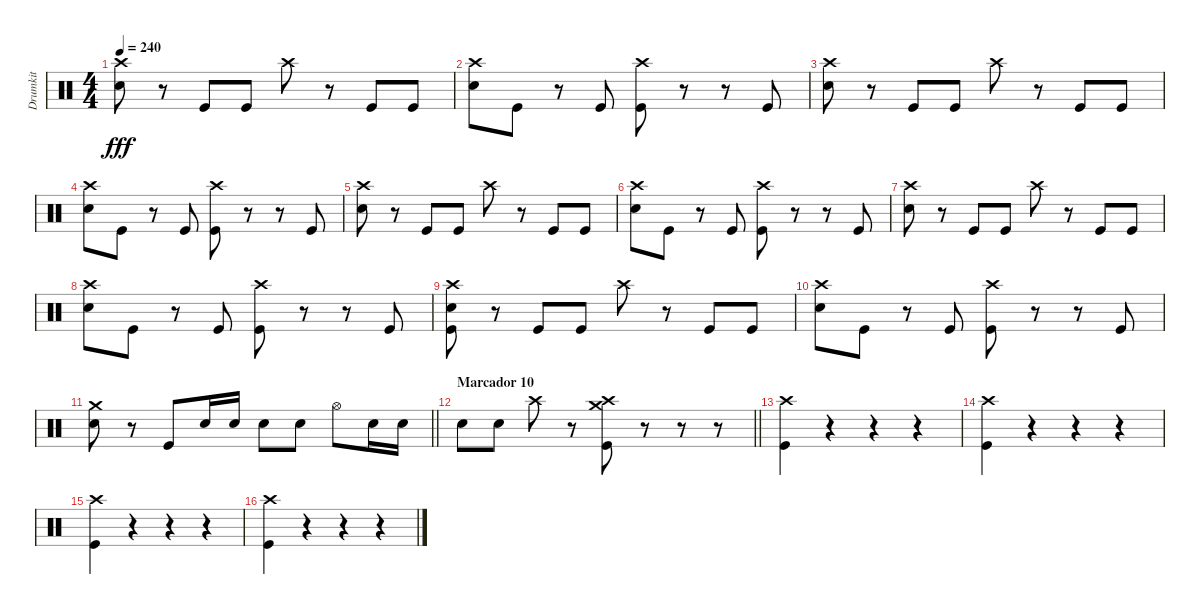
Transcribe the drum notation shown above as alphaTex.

\track ("Drumkit" "Drumkit") {instrument percussion}
\staff {score}
\articulation defaults
\ts (4 4)
\tempo 240
\clef neutral
\ks c
("Crash high (hit)" "Snare (hit) 2").8{dy fff} r.8 "Kick (hit)".8 "Kick (hit)".8 "Crash high (hit)".8 r.8 "Kick (hit)".8 "Kick (hit)".8 |
("Crash high (hit)" "Snare (hit) 2").8 "Kick (hit)".8 r.8 "Kick (hit)".8 ("Crash high (hit)" "Kick (hit)").8 r.8 r.8 "Kick (hit)".8 |
("Crash high (hit)" "Snare (hit) 2").8 r.8 "Kick (hit)".8 "Kick (hit)".8 "Crash high (hit)".8 r.8 "Kick (hit)".8 "Kick (hit)".8 |
("Crash high (hit)" "Snare (hit) 2").8 "Kick (hit)".8 r.8 "Kick (hit)".8 ("Crash high (hit)" "Kick (hit)").8 r.8 r.8 "Kick (hit)".8 |
("Crash high (hit)" "Snare (hit) 2").8 r.8 "Kick (hit)".8 "Kick (hit)".8 "Crash high (hit)".8 r.8 "Kick (hit)".8 "Kick (hit)".8 |
("Crash high (hit)" "Snare (hit) 2").8 "Kick (hit)".8 r.8 "Kick (hit)".8 ("Crash high (hit)" "Kick (hit)").8 r.8 r.8 "Kick (hit)".8 |
("Crash high (hit)" "Snare (hit) 2").8 r.8 "Kick (hit)".8 "Kick (hit)".8 "Crash high (hit)".8 r.8 "Kick (hit)".8 "Kick (hit)".8 |
("Crash high (hit)" "Snare (hit) 2").8 "Kick (hit)".8 r.8 "Kick (hit)".8 ("Crash high (hit)" "Kick (hit)").8 r.8 r.8 "Kick (hit)".8 |
("Crash high (hit)" "Snare (hit) 2" "Kick (hit)").8 r.8 "Kick (hit)".8 "Kick (hit)".8 "Crash high (hit)".8 r.8 "Kick (hit)".8 "Kick (hit)".8 |
("Crash high (hit)" "Snare (hit) 2").8 "Kick (hit)".8 r.8 "Kick (hit)".8 ("Crash high (hit)" "Kick (hit)").8 r.8 r.8 "Kick (hit)".8 |
\barLineRight lightlight
("Crash medium (hit)" "Snare (hit) 2").8 r.8 "Kick (hit)".8 "Snare (hit) 2".16 "Snare (hit) 2".16 "Snare (hit) 2".8 "Snare (hit) 2".8 "Hi-Hat (open)".8 "Snare (hit) 2".16 "Snare (hit) 2".16 |
\section ("" "Marcador 10")
\barLineRight lightlight "Snare (hit) 2".8 "Snare (hit) 2".8 "Crash high (hit)".8
r.8 ("Crash high (hit)" "Crash medium (hit)" "Kick (hit)").8 r.8 r.8 r.8 |
("Crash high (hit)" "Kick (hit)").4 r.4 r.4 r.4 |
("Crash high (hit)" "Kick (hit)").4 r.4 r.4 r.4 |
("Crash high (hit)" "Kick (hit)").4 r.4 r.4 r.4 |
("Crash high (hit)" "Kick (hit)").4 r.4 r.4 r.4
